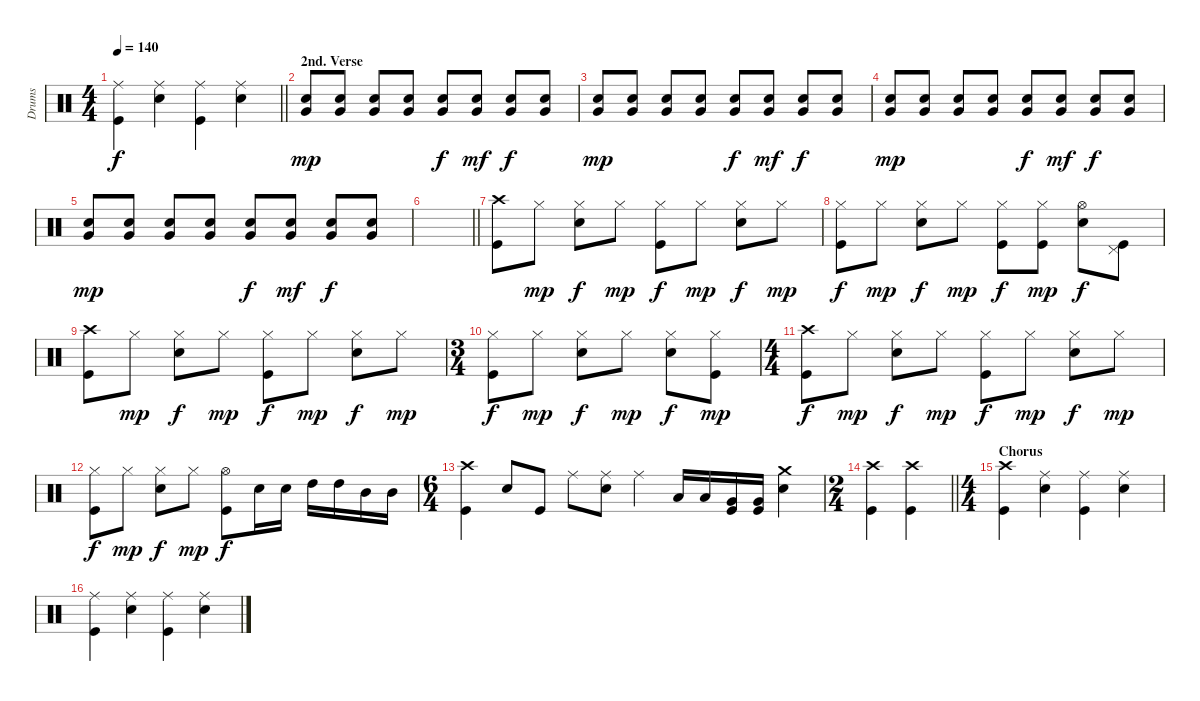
\track ("Drums" "Drums") {instrument percussion}
\staff {score}
\articulation defaults
\ts (4 4)
\tempo 140
\clef neutral
\barLineRight lightlight
\ks c
("Ride (middle)" "Kick (hit)").4{dy f} ("Ride (middle)" "Electric Snare (hit)").4 ("Ride (middle)" "Kick (hit)").4 ("Ride (middle)" "Electric Snare (hit)").4 |
\section ("" "2nd. Verse")
("Very Low Tom (hit)" "Electric Snare (hit)").8{dy mp} ("Very Low Tom (hit)" "Electric Snare (hit)").8 ("Very Low Tom (hit)" "Electric Snare (hit)").8 ("Very Low Tom (hit)" "Electric Snare (hit)").8 ("Very Low Tom (hit)" "Electric Snare (hit)").8{dy f} ("Very Low Tom (hit)" "Electric Snare (hit)").8{dy mf} ("Very Low Tom (hit)" "Electric Snare (hit)").8{dy f} ("Very Low Tom (hit)" "Electric Snare (hit)").8 |
("Very Low Tom (hit)" "Electric Snare (hit)").8{dy mp} ("Very Low Tom (hit)" "Electric Snare (hit)").8 ("Very Low Tom (hit)" "Electric Snare (hit)").8 ("Very Low Tom (hit)" "Electric Snare (hit)").8 ("Very Low Tom (hit)" "Electric Snare (hit)").8{dy f} ("Very Low Tom (hit)" "Electric Snare (hit)").8{dy mf} ("Very Low Tom (hit)" "Electric Snare (hit)").8{dy f} ("Very Low Tom (hit)" "Electric Snare (hit)").8 |
("Very Low Tom (hit)" "Electric Snare (hit)").8{dy mp} ("Very Low Tom (hit)" "Electric Snare (hit)").8 ("Very Low Tom (hit)" "Electric Snare (hit)").8 ("Very Low Tom (hit)" "Electric Snare (hit)").8 ("Very Low Tom (hit)" "Electric Snare (hit)").8{dy f} ("Very Low Tom (hit)" "Electric Snare (hit)").8{dy mf} ("Very Low Tom (hit)" "Electric Snare (hit)").8{dy f} ("Very Low Tom (hit)" "Electric Snare (hit)").8 |
("Very Low Tom (hit)" "Electric Snare (hit)").8{dy mp} ("Very Low Tom (hit)" "Electric Snare (hit)").8 ("Very Low Tom (hit)" "Electric Snare (hit)").8 ("Very Low Tom (hit)" "Electric Snare (hit)").8 ("Very Low Tom (hit)" "Electric Snare (hit)").8{dy f} ("Very Low Tom (hit)" "Electric Snare (hit)").8{dy mf} ("Very Low Tom (hit)" "Electric Snare (hit)").8{dy f} ("Very Low Tom (hit)" "Electric Snare (hit)").8 |
\barLineRight lightlight
|
("Crash high (hit)" "Kick (hit)").8 "Hi-Hat (closed)".8{dy mp} ("Hi-Hat (closed)" "Electric Snare (hit)").8{dy f} "Hi-Hat (closed)".8{dy mp} ("Hi-Hat (closed)" "Kick (hit)").8{dy f} "Hi-Hat (closed)".8{dy mp} ("Hi-Hat (closed)" "Electric Snare (hit)").8{dy f} "Hi-Hat (closed)".8{dy mp} |
("Hi-Hat (closed)" "Kick (hit)").8{dy f} "Hi-Hat (closed)".8{dy mp} ("Hi-Hat (closed)" "Electric Snare (hit)").8{dy f} "Hi-Hat (closed)".8{dy mp} ("Hi-Hat (closed)" "Kick (hit)").8{dy f} ("Hi-Hat (closed)" "Kick (hit)").8{dy mp} ("Hi-Hat (open)" "Electric Snare (hit)").8{dy f} ("Pedal Hi-Hat (hit)" "Kick (hit)").8 |
("Crash high (hit)" "Kick (hit)").8 "Hi-Hat (closed)".8{dy mp} ("Hi-Hat (closed)" "Electric Snare (hit)").8{dy f} "Hi-Hat (closed)".8{dy mp} ("Hi-Hat (closed)" "Kick (hit)").8{dy f} "Hi-Hat (closed)".8{dy mp} ("Hi-Hat (closed)" "Electric Snare (hit)").8{dy f} "Hi-Hat (closed)".8{dy mp} |
\ts (3 4)
("Hi-Hat (closed)" "Kick (hit)").8{dy f} "Hi-Hat (closed)".8{dy mp} ("Hi-Hat (closed)" "Electric Snare (hit)").8{dy f} "Hi-Hat (closed)".8{dy mp} ("Hi-Hat (closed)" "Electric Snare (hit)").8{dy f} ("Hi-Hat (closed)" "Kick (hit)").8{dy mp} |
\ts (4 4)
("Crash high (hit)" "Kick (hit)").8{dy f} "Hi-Hat (closed)".8{dy mp} ("Hi-Hat (closed)" "Electric Snare (hit)").8{dy f} "Hi-Hat (closed)".8{dy mp} ("Hi-Hat (closed)" "Kick (hit)").8{dy f} "Hi-Hat (closed)".8{dy mp} ("Hi-Hat (closed)" "Electric Snare (hit)").8{dy f} "Hi-Hat (closed)".8{dy mp} |
("Hi-Hat (closed)" "Kick (hit)").8{dy f} "Hi-Hat (closed)".8{dy mp} ("Hi-Hat (closed)" "Electric Snare (hit)").8{dy f} "Hi-Hat (closed)".8{dy mp} ("Hi-Hat (open)" "Kick (hit)").8{dy f} "Electric Snare (hit)".16 "Electric Snare (hit)".16 "High Tom (hit)".16 "High Tom (hit)".16 "Mid Tom (hit)".16 "Mid Tom (hit)".16 |
\ts (6 4)
("Crash high (hit)" "Kick (hit)").4 "Electric Snare (hit)".8 "Kick (hit)".8 "Ride (middle)".8 ("Ride (middle)" "Electric Snare (hit)").8 "Ride (middle)".4 "Low Tom (hit)".16 "Low Tom (hit)".16 ("Very Low Tom (hit)" "Kick (hit)").16 ("Very Low Tom (hit)" "Kick (hit)").16 ("Crash medium (hit)" "Electric Snare (hit)").4 |
\ts (2 4)
\barLineRight lightlight
("Crash high (hit)" "Kick (hit)").4 ("Crash high (hit)" "Kick (hit)").4 |
\ts (4 4)
\section ("" "Chorus")
("Crash high (hit)" "Kick (hit)").4 ("Ride (middle)" "Electric Snare (hit)").4 ("Ride (middle)" "Kick (hit)").4 ("Ride (middle)" "Electric Snare (hit)").4 |
("Ride (middle)" "Kick (hit)").4 ("Ride (middle)" "Electric Snare (hit)").4 ("Ride (middle)" "Kick (hit)").4 ("Ride (middle)" "Electric Snare (hit)").4
